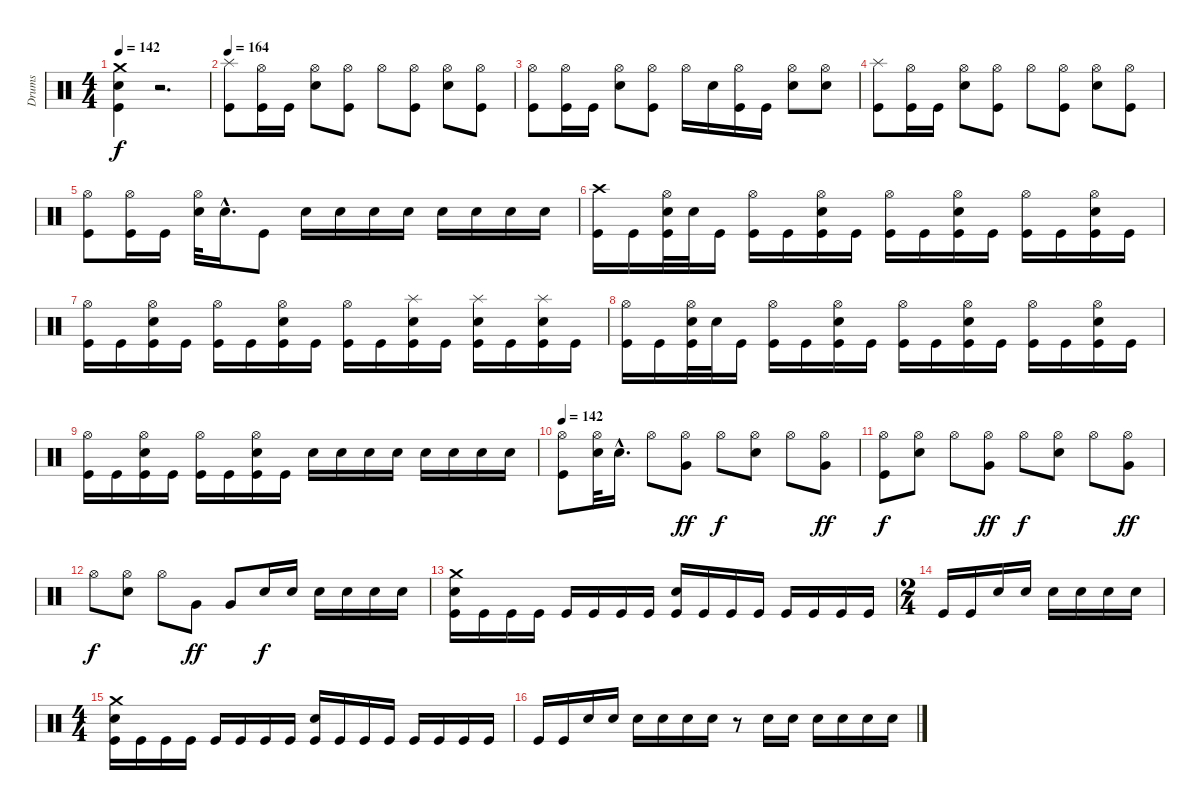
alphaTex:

\track ("Drums" "Drums") {instrument percussion}
\staff {score}
\articulation defaults
\ts (4 4)
\tempo 142
\clef neutral
\ks c
("Crash medium (hit)" "Snare (hit) 2" "Kick (hit)").4{dy f} r.2{d} |
\tempo 164
("Splash (hit)" "Kick (hit)").8 ("Hi-Hat (open)" "Kick (hit)").16 "Kick (hit)".16 ("Hi-Hat (open)" "Snare (hit) 2").8 ("Hi-Hat (open)" "Kick (hit)").8 "Hi-Hat (open)".8 ("Hi-Hat (open)" "Kick (hit)").8 ("Hi-Hat (open)" "Snare (hit) 2").8 ("Hi-Hat (open)" "Kick (hit)").8 |
("Hi-Hat (open)" "Kick (hit)").8 ("Hi-Hat (open)" "Kick (hit)").16 "Kick (hit)".16 ("Hi-Hat (open)" "Snare (hit) 2").8 ("Hi-Hat (open)" "Kick (hit)").8 "Hi-Hat (open)".16 "Snare (hit) 2".16 ("Hi-Hat (open)" "Kick (hit)").16 "Kick (hit)".16 ("Hi-Hat (open)" "Snare (hit) 2").8 ("Hi-Hat (open)" "Snare (hit) 2").8 |
("Splash (hit)" "Kick (hit)").8 ("Hi-Hat (open)" "Kick (hit)").16 "Kick (hit)".16 ("Hi-Hat (open)" "Snare (hit) 2").8 ("Hi-Hat (open)" "Kick (hit)").8 "Hi-Hat (open)".8 ("Hi-Hat (open)" "Kick (hit)").8 ("Hi-Hat (open)" "Snare (hit) 2").8 ("Hi-Hat (open)" "Kick (hit)").8 |
("Hi-Hat (open)" "Kick (hit)").8 ("Hi-Hat (open)" "Kick (hit)").16 "Kick (hit)".16 ("Hi-Hat (open)" "Snare (hit) 2").32 "Snare (hit) 2"{hac}.16{d} "Kick (hit)".8 "Snare (hit) 2".16 "Snare (hit) 2".16 "Snare (hit) 2".16 "Snare (hit) 2".16 "Snare (hit) 2".16 "Snare (hit) 2".16 "Snare (hit) 2".16 "Snare (hit) 2".16 |
("Crash high (hit)" "Kick (hit)").16 "Kick (hit)".16 ("Hi-Hat (open)" "Snare (hit) 2" "Kick (hit)").32 "Snare (hit) 2".32 "Kick (hit)".16 ("Hi-Hat (open)" "Kick (hit)").16 "Kick (hit)".16 ("Hi-Hat (open)" "Snare (hit) 2" "Kick (hit)").16 "Kick (hit)".16 ("Hi-Hat (open)" "Kick (hit)").16 "Kick (hit)".16 ("Hi-Hat (open)" "Snare (hit) 2" "Kick (hit)").16 "Kick (hit)".16 ("Hi-Hat (open)" "Kick (hit)").16 "Kick (hit)".16 ("Hi-Hat (open)" "Snare (hit) 2" "Kick (hit)").16 "Kick (hit)".16 |
("Hi-Hat (open)" "Kick (hit)").16 "Kick (hit)".16 ("Hi-Hat (open)" "Snare (hit) 2" "Kick (hit)").16 "Kick (hit)".16 ("Hi-Hat (open)" "Kick (hit)").16 "Kick (hit)".16 ("Hi-Hat (open)" "Snare (hit) 2" "Kick (hit)").16 "Kick (hit)".16 ("Hi-Hat (open)" "Kick (hit)").16 "Kick (hit)".16 ("Splash (hit)" "Snare (hit) 2" "Kick (hit)").16 "Kick (hit)".16 ("Splash (hit)" "Snare (hit) 2" "Kick (hit)").16 "Kick (hit)".16 ("Splash (hit)" "Snare (hit) 2" "Kick (hit)").16 "Kick (hit)".16 |
("Hi-Hat (open)" "Kick (hit)").16 "Kick (hit)".16 ("Hi-Hat (open)" "Snare (hit) 2" "Kick (hit)").32 "Snare (hit) 2".32 "Kick (hit)".16 ("Hi-Hat (open)" "Kick (hit)").16 "Kick (hit)".16 ("Hi-Hat (open)" "Snare (hit) 2" "Kick (hit)").16 "Kick (hit)".16 ("Hi-Hat (open)" "Kick (hit)").16 "Kick (hit)".16 ("Hi-Hat (open)" "Snare (hit) 2" "Kick (hit)").16 "Kick (hit)".16 ("Hi-Hat (open)" "Kick (hit)").16 "Kick (hit)".16 ("Hi-Hat (open)" "Snare (hit) 2" "Kick (hit)").16 "Kick (hit)".16 |
("Hi-Hat (open)" "Kick (hit)").16 "Kick (hit)".16 ("Hi-Hat (open)" "Snare (hit) 2" "Kick (hit)").16 "Kick (hit)".16 ("Hi-Hat (open)" "Kick (hit)").16 "Kick (hit)".16 ("Hi-Hat (open)" "Snare (hit) 2" "Kick (hit)").16 "Kick (hit)".16 "Snare (hit) 2".16 "Snare (hit) 2".16 "Snare (hit) 2".16 "Snare (hit) 2".16 "Snare (hit) 2".16 "Snare (hit) 2".16 "Snare (hit) 2".16 "Snare (hit) 2".16 |
\tempo 142
("Hi-Hat (open)" "Kick (hit)").8 ("Hi-Hat (open)" "Snare (hit) 2").32 "Snare (hit) 2"{hac}.16{d} "Hi-Hat (open)".8 ("Hi-Hat (open)" "Very Low Tom (hit)").8{dy ff} "Hi-Hat (open)".8{dy f} ("Hi-Hat (open)" "Snare (hit) 2").8 "Hi-Hat (open)".8 ("Hi-Hat (open)" "Very Low Tom (hit)").8{dy ff} |
("Hi-Hat (open)" "Kick (hit)").8{dy f} ("Hi-Hat (open)" "Snare (hit) 2").8 "Hi-Hat (open)".8 ("Hi-Hat (open)" "Very Low Tom (hit)").8{dy ff} "Hi-Hat (open)".8{dy f} ("Hi-Hat (open)" "Snare (hit) 2").8 "Hi-Hat (open)".8 ("Hi-Hat (open)" "Very Low Tom (hit)").8{dy ff} |
"Hi-Hat (open)".8{dy f} ("Hi-Hat (open)" "Snare (hit) 2").8 "Hi-Hat (open)".8 "Very Low Tom (hit)".8{dy ff} "Very Low Tom (hit)".8 "Snare (hit) 2".16{dy f} "Snare (hit) 2".16 "Snare (hit) 2".16 "Snare (hit) 2".16 "Snare (hit) 2".16 "Snare (hit) 2".16 |
("Crash medium (hit)" "Snare (hit) 2" "Kick (hit)").16 "Kick (hit)".16 "Kick (hit)".16 "Kick (hit)".16 "Kick (hit)".16 "Kick (hit)".16 "Kick (hit)".16 "Kick (hit)".16 ("Snare (hit) 2" "Kick (hit)").16 "Kick (hit)".16 "Kick (hit)".16 "Kick (hit)".16 "Kick (hit)".16 "Kick (hit)".16 "Kick (hit)".16 "Kick (hit)".16 |
\ts (2 4)
"Kick (hit)".16 "Kick (hit)".16 "Snare (hit) 2".16 "Snare (hit) 2".16 "Snare (hit) 2".16 "Snare (hit) 2".16 "Snare (hit) 2".16 "Snare (hit) 2".16 |
\ts (4 4)
("Crash medium (hit)" "Snare (hit) 2" "Kick (hit)").16 "Kick (hit)".16 "Kick (hit)".16 "Kick (hit)".16 "Kick (hit)".16 "Kick (hit)".16 "Kick (hit)".16 "Kick (hit)".16 ("Snare (hit) 2" "Kick (hit)").16 "Kick (hit)".16 "Kick (hit)".16 "Kick (hit)".16 "Kick (hit)".16 "Kick (hit)".16 "Kick (hit)".16 "Kick (hit)".16 |
"Kick (hit)".16 "Kick (hit)".16 "Snare (hit) 2".16 "Snare (hit) 2".16 "Snare (hit) 2".16 "Snare (hit) 2".16 "Snare (hit) 2".16 "Snare (hit) 2".16 r.8 "Snare (hit) 2".16 "Snare (hit) 2".16 "Snare (hit) 2".16 "Snare (hit) 2".16 "Snare (hit) 2".16 "Snare (hit) 2".16
